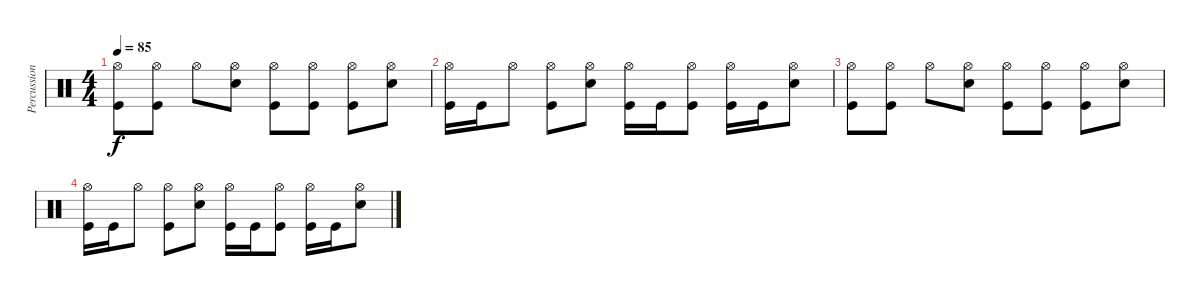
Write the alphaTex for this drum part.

\track ("Percussion" "Percussion") {instrument percussion}
\staff {score}
\articulation defaults
\ts (4 4)
\tempo 85
\clef neutral
\ks c
("Hi-Hat (open)" "Kick (hit)").8{dy f} ("Hi-Hat (open)" "Kick (hit)").8 "Hi-Hat (open)".8 ("Hi-Hat (open)" "Snare (hit) 2").8 ("Hi-Hat (open)" "Kick (hit)").8 ("Hi-Hat (open)" "Kick (hit)").8 ("Hi-Hat (open)" "Kick (hit)").8 ("Hi-Hat (open)" "Snare (hit) 2").8 |
("Hi-Hat (open)" "Kick (hit)").16 "Kick (hit)".16 "Hi-Hat (open)".8 ("Hi-Hat (open)" "Kick (hit)").8 ("Hi-Hat (open)" "Snare (hit) 2").8 ("Hi-Hat (open)" "Kick (hit)").16 "Kick (hit)".16 ("Hi-Hat (open)" "Kick (hit)").8 ("Hi-Hat (open)" "Kick (hit)").16 "Kick (hit)".16 ("Hi-Hat (open)" "Snare (hit) 2").8 |
("Hi-Hat (open)" "Kick (hit)").8 ("Hi-Hat (open)" "Kick (hit)").8 "Hi-Hat (open)".8 ("Hi-Hat (open)" "Snare (hit) 2").8 ("Hi-Hat (open)" "Kick (hit)").8 ("Hi-Hat (open)" "Kick (hit)").8 ("Hi-Hat (open)" "Kick (hit)").8 ("Hi-Hat (open)" "Snare (hit) 2").8 |
("Hi-Hat (open)" "Kick (hit)").16 "Kick (hit)".16 "Hi-Hat (open)".8 ("Hi-Hat (open)" "Kick (hit)").8 ("Hi-Hat (open)" "Snare (hit) 2").8 ("Hi-Hat (open)" "Kick (hit)").16 "Kick (hit)".16 ("Hi-Hat (open)" "Kick (hit)").8 ("Hi-Hat (open)" "Kick (hit)").16 "Kick (hit)".16 ("Hi-Hat (open)" "Snare (hit) 2").8
